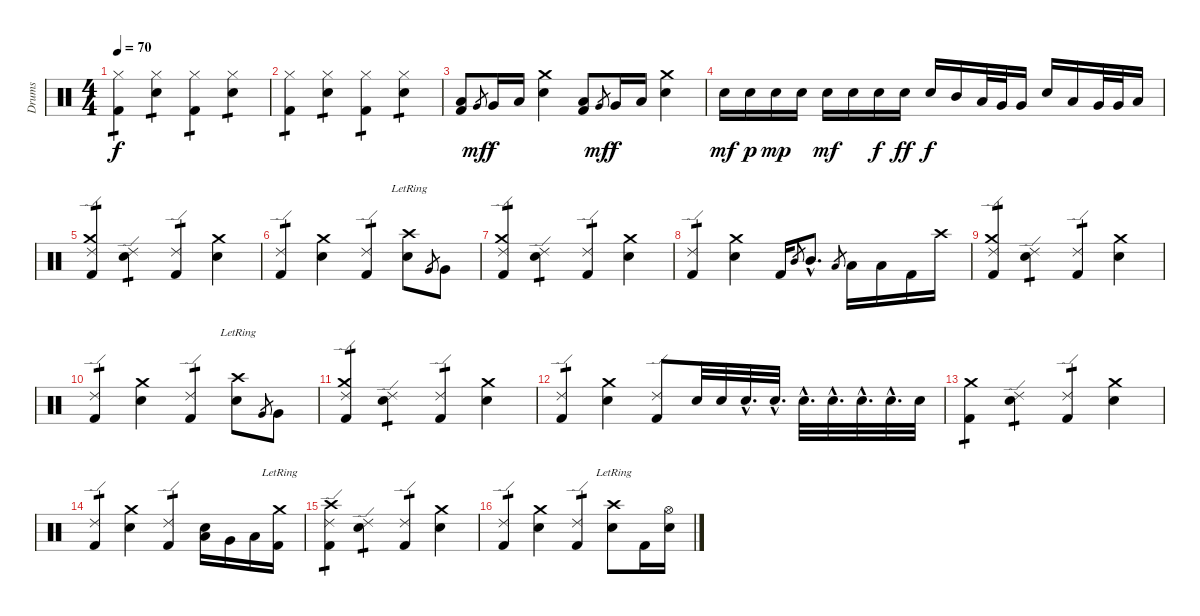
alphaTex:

\track ("Drums" "Drums") {instrument percussion}
\staff {score}
\articulation defaults
\ts (4 4)
\tempo 70
\clef neutral
\ks c
("Hi-Hat (closed)" "Kick (hit) 2").4{tp 1 dy f} ("Hi-Hat (closed)" "Snare (hit) 2").4{tp 1} ("Hi-Hat (closed)" "Kick (hit) 2").4{tp 1} ("Hi-Hat (closed)" "Snare (hit) 2").4{tp 1} |
("Hi-Hat (closed)" "Kick (hit) 2").4{tp 1} ("Hi-Hat (closed)" "Snare (hit) 2").4{tp 1} ("Hi-Hat (closed)" "Kick (hit) 2").4{tp 1} ("Hi-Hat (closed)" "Snare (hit) 2").4{tp 1} |
("Low Tom (hit)" "Kick (hit) 2").8 "Very Low Tom (hit)".8{gr dy mf} "Very Low Tom (hit)".16{dy f} "Low Floor Tom (hit)".16 ("Crash medium (hit)" "Snare (hit) 2").4 ("Low Tom (hit)" "Kick (hit) 2").8 "Very Low Tom (hit)".8{gr dy mf} "Very Low Tom (hit)".16{dy f} "Low Floor Tom (hit)".16 ("Crash medium (hit)" "Snare (hit) 2").4 |
"Snare (hit) 2".16{dy mf} "Snare (hit) 2".16{dy p} "Snare (hit) 2".16{dy mp} "Snare (hit) 2".16 "Snare (hit) 2".16{dy mf} "Snare (hit) 2".16 "Snare (hit) 2".16{dy f} "Snare (hit) 2".16{dy ff} "Snare (hit) 2".16{dy f} "Mid Tom (hit)".16 "Low Tom (hit)".32 "Very Low Tom (hit)".32 "Very Low Tom (hit)".16 "Snare (hit) 2".16 "Low Tom (hit)".16 "Very Low Tom (hit)".32 "Very Low Tom (hit)".32 "Low Floor Tom (hit)".16 |
("Crash medium (hit)" "Ride (edge) 2" "Kick (hit) 2").4{tp 1} ("Ride (edge) 2" "Snare (hit) 2").4{tp 1} ("Ride (edge) 2" "Kick (hit) 2").4{tp 1} ("Crash medium (hit)" "Snare (hit) 2").4 |
("Ride (edge) 2" "Kick (hit) 2").4{tp 1} ("Crash medium (hit)" "Snare (hit) 2").4 ("Ride (edge) 2" "Kick (hit) 2").4{tp 1} ("Crash high (hit)"{lr} "Snare (hit) 2").8 "Very Low Tom (hit)".8{gr} "Very Low Tom (hit)".8 |
("Crash medium (hit)" "Ride (edge) 2" "Kick (hit) 2").4{tp 1} ("Ride (edge) 2" "Snare (hit) 2").4{tp 1} ("Ride (edge) 2" "Kick (hit) 2").4{tp 1} ("Crash medium (hit)" "Snare (hit) 2").4 |
("Ride (edge) 2" "Kick (hit) 2").4{tp 1} ("Crash medium (hit)" "Snare (hit) 2").4 "Kick (hit) 2".16 "Mid Tom (hit)".8{gr} "Mid Tom (hit)"{hac}.8{d} "Low Tom (hit)".8{gr} "Low Tom (hit)".16 "Low Tom (hit)".16 "Kick (hit) 2".16 "Crash high (hit)".16 |
("Crash medium (hit)" "Ride (edge) 2" "Kick (hit) 2").4{tp 1} ("Ride (edge) 2" "Snare (hit) 2").4{tp 1} ("Ride (edge) 2" "Kick (hit) 2").4{tp 1} ("Crash medium (hit)" "Snare (hit) 2").4 |
("Ride (edge) 2" "Kick (hit) 2").4{tp 1} ("Crash medium (hit)" "Snare (hit) 2").4 ("Ride (edge) 2" "Kick (hit) 2").4{tp 1} ("Crash high (hit)"{lr} "Snare (hit) 2").8 "Very Low Tom (hit)".8{gr} "Very Low Tom (hit)".8 |
("Crash medium (hit)" "Ride (edge) 2" "Kick (hit) 2").4{tp 1} ("Ride (edge) 2" "Snare (hit) 2").4{tp 1} ("Ride (edge) 2" "Kick (hit) 2").4{tp 1} ("Crash medium (hit)" "Snare (hit) 2").4 |
("Ride (edge) 2" "Kick (hit) 2").4{tp 1} ("Crash medium (hit)" "Snare (hit) 2").4 ("Ride (edge) 2" "Kick (hit) 2").8 "Snare (hit) 2".32 "Snare (hit) 2".32 "Snare (hit) 2"{hac}.32{d} "Snare (hit) 2"{hac}.32{d} "Snare (hit) 2"{hac}.32{d} "Snare (hit) 2"{hac}.32{d} "Snare (hit) 2"{hac}.32{d} "Snare (hit) 2"{hac}.32{d} "Snare (hit) 2".32 |
("Crash medium (hit)" "Kick (hit) 2").4{tp 1} ("Ride (edge) 2" "Snare (hit) 2").4{tp 1} ("Ride (edge) 2" "Kick (hit) 2").4{tp 1} ("Crash medium (hit)" "Snare (hit) 2").4 |
("Ride (edge) 2" "Kick (hit) 2").4{tp 1} ("Crash medium (hit)" "Snare (hit) 2").4 ("Ride (edge) 2" "Kick (hit) 2").4{tp 1} ("Low Tom (hit)" "Snare (hit) 2").16 "Very Low Tom (hit)".16 "Low Floor Tom (hit)".16 ("Crash medium (hit)"{lr} "Kick (hit) 2").16 |
("Crash high (hit)" "Ride (edge) 2" "Kick (hit) 2").4{tp 1} ("Ride (edge) 2" "Snare (hit) 2").4{tp 1} ("Ride (edge) 2" "Kick (hit) 2").4{tp 1} ("Crash medium (hit)" "Snare (hit) 2").4 |
("Ride (edge) 2" "Kick (hit) 2").4{tp 1} ("Crash medium (hit)" "Snare (hit) 2").4 ("Ride (edge) 2" "Kick (hit) 2").4{tp 1} ("Crash high (hit)"{lr} "Snare (hit) 2").8 "Kick (hit) 2".16 ("Hi-Hat (open)" "Snare (hit) 2").16
